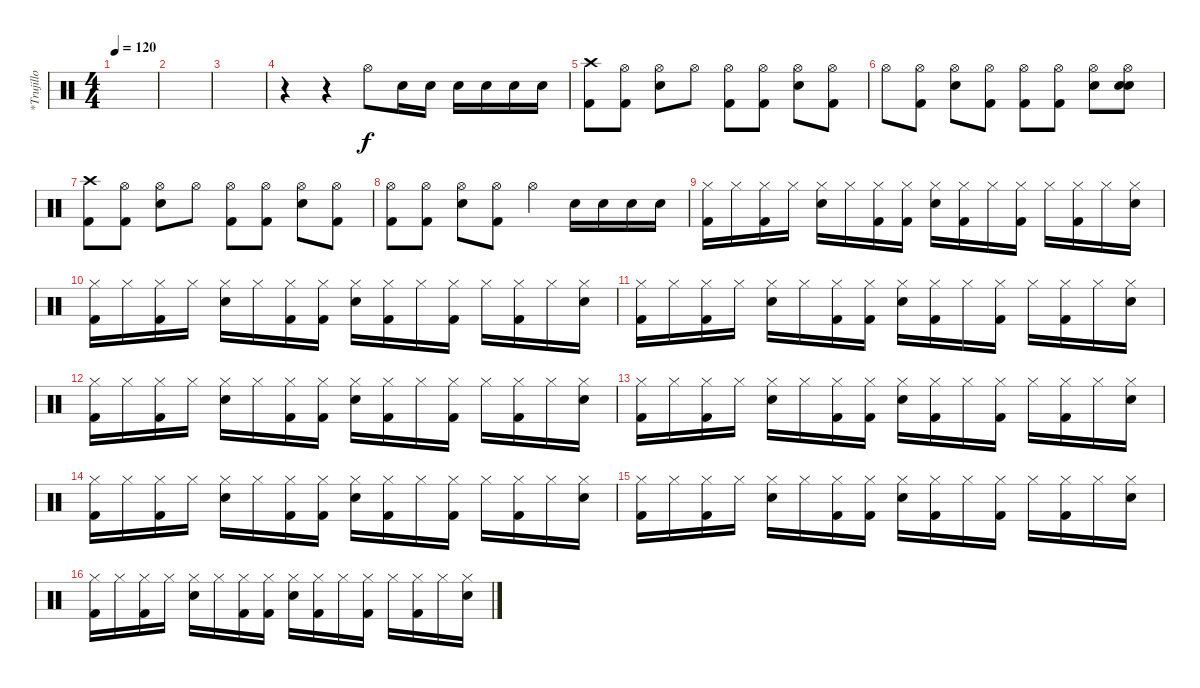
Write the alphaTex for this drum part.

\track ("*Trujillo" "*Trujillo") {instrument percussion}
\staff {score}
\articulation defaults
\ts (4 4)
\tempo 120
\clef neutral
\ks c
|
|
|
r.4 r.4 "Hi-Hat (open)".8 "Electric Snare (hit)".16 "Electric Snare (hit)".16 "Electric Snare (hit)".16 "Electric Snare (hit)".16 "Electric Snare (hit)".16 "Electric Snare (hit)".16 |
("Crash high (hit)" "Kick (hit) 2").8 ("Hi-Hat (open)" "Kick (hit) 2").8 ("Hi-Hat (open)" "Electric Snare (hit)").8 "Hi-Hat (open)".8 ("Hi-Hat (open)" "Kick (hit) 2").8 ("Hi-Hat (open)" "Kick (hit) 2").8 ("Hi-Hat (open)" "Electric Snare (hit)").8 ("Hi-Hat (open)" "Kick (hit) 2").8 |
"Hi-Hat (open)".8 ("Hi-Hat (open)" "Kick (hit) 2").8 ("Hi-Hat (open)" "Electric Snare (hit)").8 ("Hi-Hat (open)" "Kick (hit) 2"{x}).8 ("Hi-Hat (open)" "Kick (hit) 2").8 ("Hi-Hat (open)" "Kick (hit) 2").8 ("Hi-Hat (open)" "Electric Snare (hit)").8 ("Hi-Hat (open)" "Snare (hit)" "Electric Snare (hit)"{x}).8 |
("Crash high (hit)" "Kick (hit) 2").8 ("Hi-Hat (open)" "Kick (hit) 2").8 ("Hi-Hat (open)" "Electric Snare (hit)").8 "Hi-Hat (open)".8 ("Hi-Hat (open)" "Kick (hit) 2").8 ("Hi-Hat (open)" "Kick (hit) 2").8 ("Hi-Hat (open)" "Electric Snare (hit)").8 ("Hi-Hat (open)" "Kick (hit) 2").8 |
("Hi-Hat (open)" "Kick (hit) 2").8 ("Hi-Hat (open)" "Kick (hit) 2").8 ("Hi-Hat (open)" "Electric Snare (hit)").8 ("Hi-Hat (open)" "Kick (hit) 2").8 "Hi-Hat (open)".4 "Electric Snare (hit)".16 "Electric Snare (hit)".16 "Electric Snare (hit)".16 "Electric Snare (hit)".16 |
("Hi-Hat (closed)" "Kick (hit) 2").16 "Hi-Hat (closed)".16 ("Hi-Hat (closed)" "Kick (hit) 2").16 "Hi-Hat (closed)".16 ("Hi-Hat (closed)" "Electric Snare (hit)").16 "Hi-Hat (closed)".16 ("Hi-Hat (closed)" "Kick (hit) 2").16 ("Hi-Hat (closed)" "Kick (hit) 2").16 ("Hi-Hat (closed)" "Electric Snare (hit)").16 ("Hi-Hat (closed)" "Kick (hit) 2").16 "Hi-Hat (closed)".16 ("Hi-Hat (closed)" "Kick (hit) 2").16 "Hi-Hat (closed)".16 ("Hi-Hat (closed)" "Kick (hit) 2").16 "Hi-Hat (closed)".16 ("Hi-Hat (closed)" "Electric Snare (hit)").16 |
("Hi-Hat (closed)" "Kick (hit) 2").16 "Hi-Hat (closed)".16 ("Hi-Hat (closed)" "Kick (hit) 2").16 "Hi-Hat (closed)".16 ("Hi-Hat (closed)" "Electric Snare (hit)").16 "Hi-Hat (closed)".16 ("Hi-Hat (closed)" "Kick (hit) 2").16 ("Hi-Hat (closed)" "Kick (hit) 2").16 ("Hi-Hat (closed)" "Electric Snare (hit)").16 ("Hi-Hat (closed)" "Kick (hit) 2").16 "Hi-Hat (closed)".16 ("Hi-Hat (closed)" "Kick (hit) 2").16 "Hi-Hat (closed)".16 ("Hi-Hat (closed)" "Kick (hit) 2").16 "Hi-Hat (closed)".16 ("Hi-Hat (closed)" "Electric Snare (hit)").16 |
("Hi-Hat (closed)" "Kick (hit) 2").16 "Hi-Hat (closed)".16 ("Hi-Hat (closed)" "Kick (hit) 2").16 "Hi-Hat (closed)".16 ("Hi-Hat (closed)" "Electric Snare (hit)").16 "Hi-Hat (closed)".16 ("Hi-Hat (closed)" "Kick (hit) 2").16 ("Hi-Hat (closed)" "Kick (hit) 2").16 ("Hi-Hat (closed)" "Electric Snare (hit)").16 ("Hi-Hat (closed)" "Kick (hit) 2").16 "Hi-Hat (closed)".16 ("Hi-Hat (closed)" "Kick (hit) 2").16 "Hi-Hat (closed)".16 ("Hi-Hat (closed)" "Kick (hit) 2").16 "Hi-Hat (closed)".16 ("Hi-Hat (closed)" "Electric Snare (hit)").16 |
("Hi-Hat (closed)" "Kick (hit) 2").16 "Hi-Hat (closed)".16 ("Hi-Hat (closed)" "Kick (hit) 2").16 "Hi-Hat (closed)".16 ("Hi-Hat (closed)" "Electric Snare (hit)").16 "Hi-Hat (closed)".16 ("Hi-Hat (closed)" "Kick (hit) 2").16 ("Hi-Hat (closed)" "Kick (hit) 2").16 ("Hi-Hat (closed)" "Electric Snare (hit)").16 ("Hi-Hat (closed)" "Kick (hit) 2").16 "Hi-Hat (closed)".16 ("Hi-Hat (closed)" "Kick (hit) 2").16 "Hi-Hat (closed)".16 ("Hi-Hat (closed)" "Kick (hit) 2").16 "Hi-Hat (closed)".16 ("Hi-Hat (closed)" "Electric Snare (hit)").16 |
("Hi-Hat (closed)" "Kick (hit) 2").16 "Hi-Hat (closed)".16 ("Hi-Hat (closed)" "Kick (hit) 2").16 "Hi-Hat (closed)".16 ("Hi-Hat (closed)" "Electric Snare (hit)").16 "Hi-Hat (closed)".16 ("Hi-Hat (closed)" "Kick (hit) 2").16 ("Hi-Hat (closed)" "Kick (hit) 2").16 ("Hi-Hat (closed)" "Electric Snare (hit)").16 ("Hi-Hat (closed)" "Kick (hit) 2").16 "Hi-Hat (closed)".16 ("Hi-Hat (closed)" "Kick (hit) 2").16 "Hi-Hat (closed)".16 ("Hi-Hat (closed)" "Kick (hit) 2").16 "Hi-Hat (closed)".16 ("Hi-Hat (closed)" "Electric Snare (hit)").16 |
("Hi-Hat (closed)" "Kick (hit) 2").16 "Hi-Hat (closed)".16 ("Hi-Hat (closed)" "Kick (hit) 2").16 "Hi-Hat (closed)".16 ("Hi-Hat (closed)" "Electric Snare (hit)").16 "Hi-Hat (closed)".16 ("Hi-Hat (closed)" "Kick (hit) 2").16 ("Hi-Hat (closed)" "Kick (hit) 2").16 ("Hi-Hat (closed)" "Electric Snare (hit)").16 ("Hi-Hat (closed)" "Kick (hit) 2").16 "Hi-Hat (closed)".16 ("Hi-Hat (closed)" "Kick (hit) 2").16 "Hi-Hat (closed)".16 ("Hi-Hat (closed)" "Kick (hit) 2").16 "Hi-Hat (closed)".16 ("Hi-Hat (closed)" "Electric Snare (hit)").16 |
("Hi-Hat (closed)" "Kick (hit) 2").16 "Hi-Hat (closed)".16 ("Hi-Hat (closed)" "Kick (hit) 2").16 "Hi-Hat (closed)".16 ("Hi-Hat (closed)" "Electric Snare (hit)").16 "Hi-Hat (closed)".16 ("Hi-Hat (closed)" "Kick (hit) 2").16 ("Hi-Hat (closed)" "Kick (hit) 2").16 ("Hi-Hat (closed)" "Electric Snare (hit)").16 ("Hi-Hat (closed)" "Kick (hit) 2").16 "Hi-Hat (closed)".16 ("Hi-Hat (closed)" "Kick (hit) 2").16 "Hi-Hat (closed)".16 ("Hi-Hat (closed)" "Kick (hit) 2").16 "Hi-Hat (closed)".16 ("Hi-Hat (closed)" "Electric Snare (hit)").16 |
("Hi-Hat (closed)" "Kick (hit) 2").16 "Hi-Hat (closed)".16 ("Hi-Hat (closed)" "Kick (hit) 2").16 "Hi-Hat (closed)".16 ("Hi-Hat (closed)" "Electric Snare (hit)").16 "Hi-Hat (closed)".16 ("Hi-Hat (closed)" "Kick (hit) 2").16 ("Hi-Hat (closed)" "Kick (hit) 2").16 ("Hi-Hat (closed)" "Electric Snare (hit)").16 ("Hi-Hat (closed)" "Kick (hit) 2").16 "Hi-Hat (closed)".16 ("Hi-Hat (closed)" "Kick (hit) 2").16 "Hi-Hat (closed)".16 ("Hi-Hat (closed)" "Kick (hit) 2").16 "Hi-Hat (closed)".16 ("Hi-Hat (closed)" "Electric Snare (hit)").16
